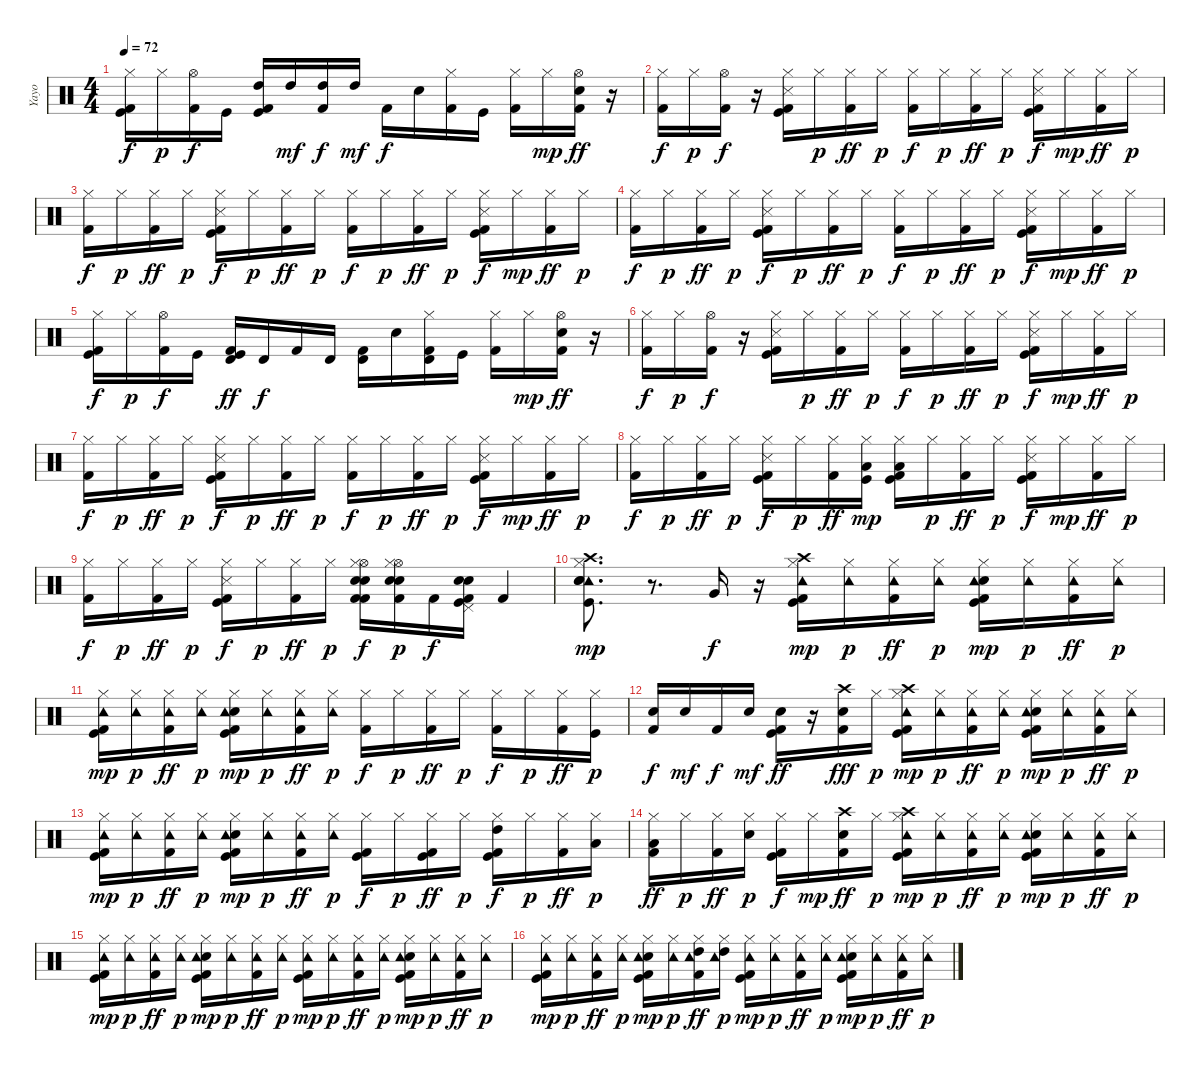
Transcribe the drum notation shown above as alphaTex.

\track ("Yayo" "Yayo") {instrument percussion}
\staff {score}
\articulation defaults
\ts (4 4)
\tempo 72
\clef neutral
\ks c
("Kick (hit)" "Hi-Hat (closed)" "Kick (hit) 2").16{dy f} "Hi-Hat (closed)".16{dy p} ("Hi-Hat (open)" "Kick (hit) 2").16{dy f} "Kick (hit)".16 ("Kick (hit)" "High Tom (hit)" "Kick (hit) 2").16 "High Tom (hit)".16{dy mf} ("High Tom (hit)" "Kick (hit) 2").16{dy f} "High Tom (hit)".16{dy mf} "Kick (hit) 2".16{dy f} "Snare (hit) 2".16 ("Hi-Hat (closed)" "Kick (hit) 2").16 "Kick (hit)".16 ("Hi-Hat (closed)" "Kick (hit) 2").16 "Hi-Hat (closed)".16{dy mp} ("Snare (hit) 2" "Hi-Hat (open)" "Kick (hit) 2").16{dy ff} r.16 |
("Hi-Hat (closed)" "Kick (hit) 2").16{dy f} "Hi-Hat (closed)".16{dy p} ("Hi-Hat (open)" "Kick (hit) 2").16{dy f} r.16 ("Kick (hit)" "Hi-Hat (closed)" "Snare (side stick) 3" "Kick (hit) 2").16 "Hi-Hat (closed)".16{dy p} ("Hi-Hat (closed)" "Kick (hit) 2").16{dy ff} "Hi-Hat (closed)".16{dy p} ("Hi-Hat (closed)" "Kick (hit) 2").16{dy f} "Hi-Hat (closed)".16{dy p} ("Hi-Hat (closed)" "Kick (hit) 2").16{dy ff} "Hi-Hat (closed)".16{dy p} ("Kick (hit)" "Hi-Hat (closed)" "Snare (side stick) 3" "Kick (hit) 2").16{dy f} "Hi-Hat (closed)".16{dy mp} ("Hi-Hat (closed)" "Kick (hit) 2").16{dy ff} "Hi-Hat (closed)".16{dy p} |
("Hi-Hat (closed)" "Kick (hit) 2").16{dy f} "Hi-Hat (closed)".16{dy p} ("Hi-Hat (closed)" "Kick (hit) 2").16{dy ff} "Hi-Hat (closed)".16{dy p} ("Kick (hit)" "Hi-Hat (closed)" "Snare (side stick) 3" "Kick (hit) 2").16{dy f} "Hi-Hat (closed)".16{dy p} ("Hi-Hat (closed)" "Kick (hit) 2").16{dy ff} "Hi-Hat (closed)".16{dy p} ("Hi-Hat (closed)" "Kick (hit) 2").16{dy f} "Hi-Hat (closed)".16{dy p} ("Hi-Hat (closed)" "Kick (hit) 2").16{dy ff} "Hi-Hat (closed)".16{dy p} ("Kick (hit)" "Hi-Hat (closed)" "Snare (side stick) 3" "Kick (hit) 2").16{dy f} "Hi-Hat (closed)".16{dy mp} ("Hi-Hat (closed)" "Kick (hit) 2").16{dy ff} "Hi-Hat (closed)".16{dy p} |
("Hi-Hat (closed)" "Kick (hit) 2").16{dy f} "Hi-Hat (closed)".16{dy p} ("Hi-Hat (closed)" "Kick (hit) 2").16{dy ff} "Hi-Hat (closed)".16{dy p} ("Kick (hit)" "Hi-Hat (closed)" "Snare (side stick) 3" "Kick (hit) 2").16{dy f} "Hi-Hat (closed)".16{dy p} ("Hi-Hat (closed)" "Kick (hit) 2").16{dy ff} "Hi-Hat (closed)".16{dy p} ("Hi-Hat (closed)" "Kick (hit) 2").16{dy f} "Hi-Hat (closed)".16{dy p} ("Hi-Hat (closed)" "Kick (hit) 2").16{dy ff} "Hi-Hat (closed)".16{dy p} ("Kick (hit)" "Hi-Hat (closed)" "Snare (side stick) 3" "Kick (hit) 2").16{dy f} "Hi-Hat (closed)".16{dy mp} ("Hi-Hat (closed)" "Kick (hit) 2").16{dy ff} "Hi-Hat (closed)".16{dy p} |
("Kick (hit)" "Hi-Hat (closed)" "Kick (hit) 2").16{dy f} "Hi-Hat (closed)".16{dy p} ("Hi-Hat (open)" "Kick (hit) 2").16{dy f} "Kick (hit)".16 ("Kick (hit)" "Timbale high (hit)" "Kick (hit) 2").16{dy ff} "Timbale high (hit)".16{dy f} "Kick (hit) 2".16 "Timbale high (hit)".16 ("Timbale high (hit)" "Kick (hit) 2").16 "Snare (hit) 2".16 ("Hi-Hat (closed)" "Timbale high (hit)" "Kick (hit) 2").16 "Kick (hit)".16 ("Hi-Hat (closed)" "Kick (hit) 2").16 "Hi-Hat (closed)".16{dy mp} ("Snare (hit) 2" "Hi-Hat (open)" "Kick (hit) 2").16{dy ff} r.16 |
("Hi-Hat (closed)" "Kick (hit) 2").16{dy f} "Hi-Hat (closed)".16{dy p} ("Hi-Hat (open)" "Kick (hit) 2").16{dy f} r.16 ("Kick (hit)" "Hi-Hat (closed)" "Snare (side stick) 3" "Kick (hit) 2").16 "Hi-Hat (closed)".16{dy p} ("Hi-Hat (closed)" "Kick (hit) 2").16{dy ff} "Hi-Hat (closed)".16{dy p} ("Hi-Hat (closed)" "Kick (hit) 2").16{dy f} "Hi-Hat (closed)".16{dy p} ("Hi-Hat (closed)" "Kick (hit) 2").16{dy ff} "Hi-Hat (closed)".16{dy p} ("Kick (hit)" "Hi-Hat (closed)" "Snare (side stick) 3" "Kick (hit) 2").16{dy f} "Hi-Hat (closed)".16{dy mp} ("Hi-Hat (closed)" "Kick (hit) 2").16{dy ff} "Hi-Hat (closed)".16{dy p} |
("Hi-Hat (closed)" "Kick (hit) 2").16{dy f} "Hi-Hat (closed)".16{dy p} ("Hi-Hat (closed)" "Kick (hit) 2").16{dy ff} "Hi-Hat (closed)".16{dy p} ("Kick (hit)" "Hi-Hat (closed)" "Snare (side stick) 3" "Kick (hit) 2").16{dy f} "Hi-Hat (closed)".16{dy p} ("Hi-Hat (closed)" "Kick (hit) 2").16{dy ff} "Hi-Hat (closed)".16{dy p} ("Hi-Hat (closed)" "Kick (hit) 2").16{dy f} "Hi-Hat (closed)".16{dy p} ("Hi-Hat (closed)" "Kick (hit) 2").16{dy ff} "Hi-Hat (closed)".16{dy p} ("Kick (hit)" "Hi-Hat (closed)" "Snare (side stick) 3" "Kick (hit) 2").16{dy f} "Hi-Hat (closed)".16{dy mp} ("Hi-Hat (closed)" "Kick (hit) 2").16{dy ff} "Hi-Hat (closed)".16{dy p} |
("Hi-Hat (closed)" "Kick (hit) 2").16{dy f} "Hi-Hat (closed)".16{dy p} ("Hi-Hat (closed)" "Kick (hit) 2").16{dy ff} "Hi-Hat (closed)".16{dy p} ("Kick (hit)" "Hi-Hat (closed)" "Snare (side stick) 3" "Kick (hit) 2").16{dy f} "Hi-Hat (closed)".16{dy p} ("Hi-Hat (closed)" "Kick (hit) 2").16{dy ff} ("Kick (hit)" "Hi-Hat (closed)" "Low Tom (hit)").16{dy mp} ("Kick (hit)" "Hi-Hat (closed)" "Low Tom (hit)" "Kick (hit) 2").16 "Hi-Hat (closed)".16{dy p} ("Hi-Hat (closed)" "Kick (hit) 2").16{dy ff} "Hi-Hat (closed)".16{dy p} ("Kick (hit)" "Hi-Hat (closed)" "Snare (side stick) 3" "Kick (hit) 2").16{dy f} "Hi-Hat (closed)".16{dy mp} ("Hi-Hat (closed)" "Kick (hit) 2").16{dy ff} "Hi-Hat (closed)".16{dy p} |
("Hi-Hat (closed)" "Kick (hit) 2").16{dy f} "Hi-Hat (closed)".16{dy p} ("Hi-Hat (closed)" "Kick (hit) 2").16{dy ff} "Hi-Hat (closed)".16{dy p} ("Kick (hit)" "Hi-Hat (closed)" "Snare (side stick) 3" "Kick (hit) 2").16{dy f} "Hi-Hat (closed)".16{dy p} ("Hi-Hat (closed)" "Kick (hit) 2").16{dy ff} "Hi-Hat (closed)".16{dy p} ("Electric Snare (hit)" "Kick (hit) 2" "Snare (hit) 2" "Hi-Hat (open)" "Hi-Hat (closed)" "Kick (hit) 2").16{dy f} ("Hi-Hat (open)" "Kick (hit) 2" "Electric Snare (hit)" "Hi-Hat (closed)" "Snare (hit) 2").16{dy p} "Kick (hit) 2".16{dy f} ("Kick (hit) 2" "Snare (hit) 2" "Electric Snare (hit)" "Pedal Hi-Hat (hit)" "Kick (hit)").16 "Kick (hit) 2".4 |
("Kick (hit)" "Hi-Hat (closed)" "Tambourine (hit)" "Snare (hit) 2" "Electric Snare (hit)" "Crash high (hit)").8{d dy mp} r.8{d} "Very Low Tom (hit)".16{dy f} r.16 ("Kick (hit)" "Hi-Hat (closed)" "Crash high (hit)" "Tambourine (hit)" "Kick (hit) 2").16{dy mp} ("Hi-Hat (closed)" "Tambourine (hit)").16{dy p} ("Hi-Hat (closed)" "Tambourine (hit)" "Kick (hit) 2").16{dy ff} ("Hi-Hat (closed)" "Tambourine (hit)").16{dy p} ("Kick (hit)" "Snare (hit) 2" "Hi-Hat (closed)" "Tambourine (hit)" "Kick (hit) 2").16{dy mp} ("Hi-Hat (closed)" "Tambourine (hit)").16{dy p} ("Hi-Hat (closed)" "Tambourine (hit)" "Kick (hit) 2").16{dy ff} ("Hi-Hat (closed)" "Tambourine (hit)").16{dy p} |
("Kick (hit)" "Hi-Hat (closed)" "Tambourine (hit)" "Kick (hit) 2").16{dy mp} ("Hi-Hat (closed)" "Tambourine (hit)").16{dy p} ("Hi-Hat (closed)" "Tambourine (hit)" "Kick (hit) 2").16{dy ff} ("Hi-Hat (closed)" "Tambourine (hit)").16{dy p} ("Kick (hit)" "Snare (hit) 2" "Hi-Hat (closed)" "Tambourine (hit)" "Kick (hit) 2").16{dy mp} ("Hi-Hat (closed)" "Tambourine (hit)").16{dy p} ("Hi-Hat (closed)" "Tambourine (hit)" "Kick (hit) 2").16{dy ff} ("Hi-Hat (closed)" "Tambourine (hit)").16{dy p} ("Hi-Hat (closed)" "Kick (hit) 2").16{dy f} "Hi-Hat (closed)".16{dy p} ("Hi-Hat (closed)" "Kick (hit) 2").16{dy ff} "Hi-Hat (closed)".16{dy p} ("Hi-Hat (closed)" "Kick (hit) 2").16{dy f} "Hi-Hat (closed)".16{dy p} ("Hi-Hat (closed)" "Kick (hit) 2").16{dy ff} ("Kick (hit)" "Hi-Hat (closed)").16{dy p} |
("Snare (hit) 2" "Kick (hit) 2").16{dy f} "Snare (hit) 2".16{dy mf} "Kick (hit) 2".16{dy f} "Snare (hit) 2".16{dy mf} ("Kick (hit)" "Snare (hit) 2" "Kick (hit) 2").16{dy ff} r.16 ("Snare (hit) 2" "Crash high (hit)" "Kick (hit) 2").16{dy fff} "Hi-Hat (closed)".16{dy p} ("Kick (hit)" "Hi-Hat (closed)" "Crash high (hit)" "Tambourine (hit)" "Kick (hit) 2").16{dy mp} ("Hi-Hat (closed)" "Tambourine (hit)").16{dy p} ("Hi-Hat (closed)" "Tambourine (hit)" "Kick (hit) 2").16{dy ff} ("Hi-Hat (closed)" "Tambourine (hit)").16{dy p} ("Kick (hit)" "Snare (hit) 2" "Hi-Hat (closed)" "Tambourine (hit)" "Kick (hit) 2").16{dy mp} ("Hi-Hat (closed)" "Tambourine (hit)").16{dy p} ("Hi-Hat (closed)" "Tambourine (hit)" "Kick (hit) 2").16{dy ff} ("Hi-Hat (closed)" "Tambourine (hit)").16{dy p} |
("Kick (hit)" "Hi-Hat (closed)" "Tambourine (hit)" "Kick (hit) 2").16{dy mp} ("Hi-Hat (closed)" "Tambourine (hit)").16{dy p} ("Hi-Hat (closed)" "Tambourine (hit)" "Kick (hit) 2").16{dy ff} ("Hi-Hat (closed)" "Tambourine (hit)").16{dy p} ("Kick (hit)" "Snare (hit) 2" "Hi-Hat (closed)" "Tambourine (hit)" "Kick (hit) 2").16{dy mp} ("Hi-Hat (closed)" "Tambourine (hit)").16{dy p} ("Hi-Hat (closed)" "Tambourine (hit)" "Kick (hit) 2").16{dy ff} ("Hi-Hat (closed)" "Tambourine (hit)").16{dy p} ("Kick (hit)" "Hi-Hat (closed)" "Kick (hit) 2").16{dy f} "Hi-Hat (closed)".16{dy p} ("Kick (hit)" "Hi-Hat (closed)" "Kick (hit) 2").16{dy ff} "Hi-Hat (closed)".16{dy p} ("Kick (hit)" "Hi-Hat (closed)" "High Tom (hit)" "Kick (hit) 2").16{dy f} "Hi-Hat (closed)".16{dy p} ("Hi-Hat (closed)" "Kick (hit) 2").16{dy ff} ("Hi-Hat (closed)" "Low Tom (hit)").16{dy p} |
("Hi-Hat (closed)" "Low Floor Tom (hit)" "Kick (hit) 2").16{dy ff} "Hi-Hat (closed)".16{dy p} ("Hi-Hat (closed)" "Kick (hit) 2").16{dy ff} ("Snare (hit) 2" "Hi-Hat (closed)").16{dy p} ("Kick (hit)" "Hi-Hat (closed)" "Kick (hit) 2").16{dy f} "Hi-Hat (closed)".16{dy mp} ("Snare (hit) 2" "Crash high (hit)" "Kick (hit) 2").16{dy ff} "Hi-Hat (closed)".16{dy p} ("Kick (hit)" "Hi-Hat (closed)" "Crash high (hit)" "Tambourine (hit)" "Kick (hit) 2").16{dy mp} ("Hi-Hat (closed)" "Tambourine (hit)").16{dy p} ("Hi-Hat (closed)" "Tambourine (hit)" "Kick (hit) 2").16{dy ff} ("Hi-Hat (closed)" "Tambourine (hit)").16{dy p} ("Kick (hit)" "Snare (hit) 2" "Hi-Hat (closed)" "Tambourine (hit)" "Kick (hit) 2").16{dy mp} ("Hi-Hat (closed)" "Tambourine (hit)").16{dy p} ("Hi-Hat (closed)" "Tambourine (hit)" "Kick (hit) 2").16{dy ff} ("Hi-Hat (closed)" "Tambourine (hit)").16{dy p} |
("Kick (hit)" "Hi-Hat (closed)" "Tambourine (hit)" "Kick (hit) 2").16{dy mp} ("Hi-Hat (closed)" "Tambourine (hit)").16{dy p} ("Hi-Hat (closed)" "Tambourine (hit)" "Kick (hit) 2").16{dy ff} ("Hi-Hat (closed)" "Tambourine (hit)").16{dy p} ("Kick (hit)" "Snare (hit) 2" "Hi-Hat (closed)" "Tambourine (hit)" "Kick (hit) 2").16{dy mp} ("Hi-Hat (closed)" "Tambourine (hit)").16{dy p} ("Hi-Hat (closed)" "Tambourine (hit)" "Kick (hit) 2").16{dy ff} ("Hi-Hat (closed)" "Tambourine (hit)").16{dy p} ("Kick (hit)" "Hi-Hat (closed)" "Tambourine (hit)" "Kick (hit) 2").16{dy mp} ("Hi-Hat (closed)" "Tambourine (hit)").16{dy p} ("Hi-Hat (closed)" "Tambourine (hit)" "Kick (hit) 2").16{dy ff} ("Hi-Hat (closed)" "Tambourine (hit)").16{dy p} ("Kick (hit)" "Snare (hit) 2" "Hi-Hat (closed)" "Tambourine (hit)" "Kick (hit) 2").16{dy mp} ("Hi-Hat (closed)" "Tambourine (hit)").16{dy p} ("Hi-Hat (closed)" "Tambourine (hit)" "Kick (hit) 2").16{dy ff} ("Hi-Hat (closed)" "Tambourine (hit)").16{dy p} |
("Kick (hit)" "Hi-Hat (closed)" "Tambourine (hit)" "Kick (hit) 2").16{dy mp} ("Hi-Hat (closed)" "Tambourine (hit)").16{dy p} ("Hi-Hat (closed)" "Tambourine (hit)" "Kick (hit) 2").16{dy ff} ("Hi-Hat (closed)" "Tambourine (hit)").16{dy p} ("Kick (hit)" "Snare (hit) 2" "Hi-Hat (closed)" "Tambourine (hit)" "Kick (hit) 2").16{dy mp} ("Hi-Hat (closed)" "Tambourine (hit)").16{dy p} ("Hi-Hat (closed)" "High Tom (hit)" "Tambourine (hit)" "Kick (hit) 2").16{dy ff} ("Hi-Hat (closed)" "High Tom (hit)" "Tambourine (hit)").16{dy p} ("Kick (hit)" "Hi-Hat (closed)" "Tambourine (hit)" "Kick (hit) 2").16{dy mp} ("Hi-Hat (closed)" "Tambourine (hit)").16{dy p} ("Hi-Hat (closed)" "Tambourine (hit)" "Kick (hit) 2").16{dy ff} ("Hi-Hat (closed)" "Tambourine (hit)").16{dy p} ("Kick (hit)" "Snare (hit) 2" "Hi-Hat (closed)" "Tambourine (hit)" "Kick (hit) 2").16{dy mp} ("Hi-Hat (closed)" "Tambourine (hit)").16{dy p} ("Hi-Hat (closed)" "Tambourine (hit)" "Kick (hit) 2").16{dy ff} ("Hi-Hat (closed)" "Tambourine (hit)").16{dy p}
